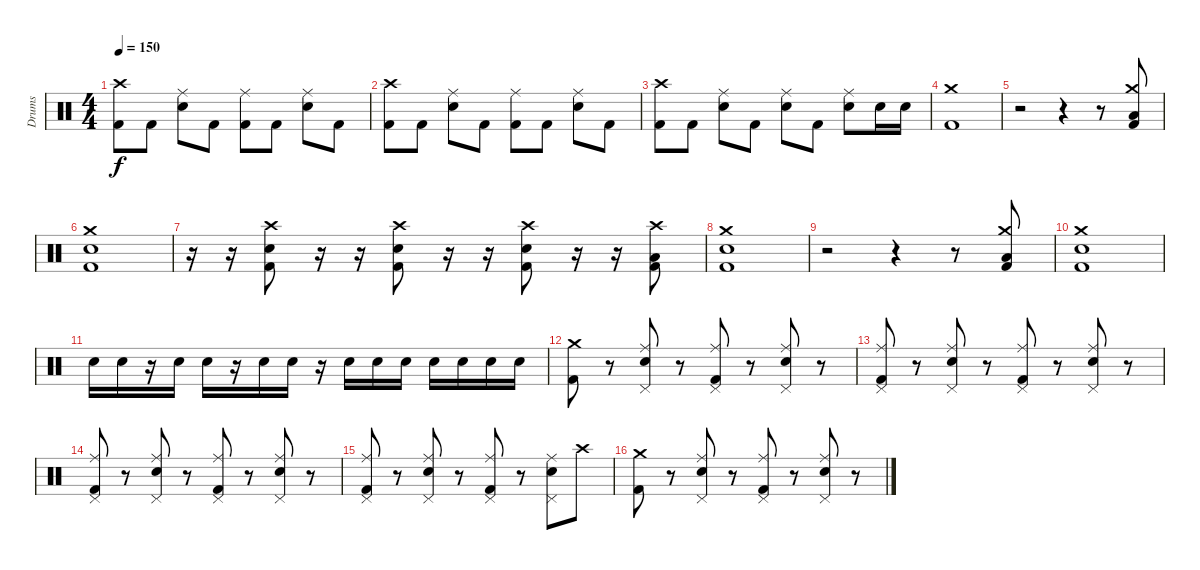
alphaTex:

\track ("Drums" "Drums") {instrument percussion}
\staff {score}
\articulation defaults
\ts (4 4)
\tempo 150
\clef neutral
\ks c
("Crash high (hit)" "Kick (hit) 2").8{dy f} "Kick (hit) 2".8 ("Ride (middle)" "Snare (hit) 2").8 "Kick (hit) 2".8 ("Ride (middle)" "Kick (hit) 2").8 "Kick (hit) 2".8 ("Ride (middle)" "Snare (hit) 2").8 "Kick (hit) 2".8 |
("Crash high (hit)" "Kick (hit) 2").8 "Kick (hit) 2".8 ("Ride (middle)" "Snare (hit) 2").8 "Kick (hit) 2".8 ("Ride (middle)" "Kick (hit) 2").8 "Kick (hit) 2".8 ("Ride (middle)" "Snare (hit) 2").8 "Kick (hit) 2".8 |
("Crash high (hit)" "Kick (hit) 2").8 "Kick (hit) 2".8 ("Ride (middle)" "Snare (hit) 2").8 "Kick (hit) 2".8 ("Ride (middle)" "Snare (hit) 2").8 "Kick (hit) 2".8 ("Ride (middle)" "Snare (hit) 2").8 "Snare (hit) 2".16 "Snare (hit) 2".16 |
("Crash medium (hit)" "Kick (hit) 2").1 |
r.2 r.4 r.8 ("Crash medium (hit)" "Low Tom (hit)" "Kick (hit) 2").8 |
("Crash medium (hit)" "Snare (hit) 2" "Kick (hit) 2").1 |
r.16 r.16 ("Crash high (hit)" "Snare (hit) 2" "Kick (hit) 2").8 r.16 r.16 ("Crash high (hit)" "Snare (hit) 2" "Kick (hit) 2").8 r.16 r.16 ("Crash high (hit)" "Snare (hit) 2" "Kick (hit) 2").8 r.16 r.16 ("Crash high (hit)" "Low Tom (hit)" "Kick (hit) 2").8 |
("Crash medium (hit)" "Snare (hit) 2" "Kick (hit) 2").1 |
r.2 r.4 r.8 ("Crash medium (hit)" "Low Tom (hit)" "Kick (hit) 2").8 |
("Crash medium (hit)" "Snare (hit) 2" "Kick (hit) 2").1 |
"Snare (hit) 2".16 "Snare (hit) 2".16 r.16 "Snare (hit) 2".16 "Snare (hit) 2".16 r.16 "Snare (hit) 2".16 "Snare (hit) 2".16 r.16 "Snare (hit) 2".16 "Snare (hit) 2".16 "Snare (hit) 2".16 "Snare (hit) 2".16 "Snare (hit) 2".16 "Snare (hit) 2".16 "Snare (hit) 2".16 |
("Crash medium (hit)" "Kick (hit) 2").8 r.8 ("Pedal Hi-Hat (hit)" "Ride (middle)" "Snare (hit) 2").8 r.8 ("Pedal Hi-Hat (hit)" "Ride (middle)" "Kick (hit) 2").8 r.8 ("Pedal Hi-Hat (hit)" "Ride (middle)" "Snare (hit) 2").8 r.8 |
("Pedal Hi-Hat (hit)" "Ride (middle)" "Kick (hit) 2").8 r.8 ("Pedal Hi-Hat (hit)" "Ride (middle)" "Snare (hit) 2").8 r.8 ("Pedal Hi-Hat (hit)" "Ride (middle)" "Kick (hit) 2").8 r.8 ("Pedal Hi-Hat (hit)" "Ride (middle)" "Snare (hit) 2").8 r.8 |
("Pedal Hi-Hat (hit)" "Ride (middle)" "Kick (hit) 2").8 r.8 ("Pedal Hi-Hat (hit)" "Ride (middle)" "Snare (hit) 2").8 r.8 ("Pedal Hi-Hat (hit)" "Ride (middle)" "Kick (hit) 2").8 r.8 ("Pedal Hi-Hat (hit)" "Ride (middle)" "Snare (hit) 2").8 r.8 |
("Pedal Hi-Hat (hit)" "Ride (middle)" "Kick (hit) 2").8 r.8 ("Pedal Hi-Hat (hit)" "Ride (middle)" "Snare (hit) 2").8 r.8 ("Pedal Hi-Hat (hit)" "Ride (middle)" "Kick (hit) 2").8 r.8 ("Pedal Hi-Hat (hit)" "Ride (middle)" "Snare (hit) 2").8 "Crash high (hit)".8 |
("Crash medium (hit)" "Kick (hit) 2").8 r.8 ("Pedal Hi-Hat (hit)" "Ride (middle)" "Snare (hit) 2").8 r.8 ("Pedal Hi-Hat (hit)" "Ride (middle)" "Kick (hit) 2").8 r.8 ("Pedal Hi-Hat (hit)" "Ride (middle)" "Snare (hit) 2").8 r.8
